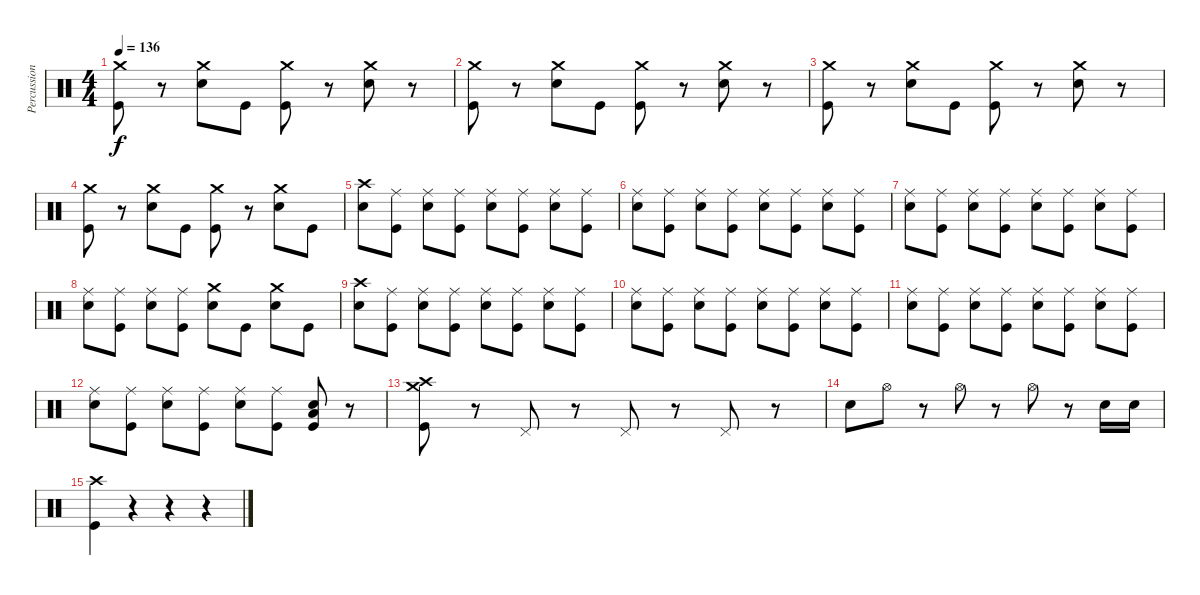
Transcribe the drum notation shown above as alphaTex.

\track ("Percussion" "Percussion") {instrument percussion}
\staff {score}
\articulation defaults
\ts (4 4)
\tempo 136
\clef neutral
\ks c
("Crash medium (hit)" "Kick (hit)").8{dy f} r.8 ("Crash medium (hit)" "Electric Snare (hit)").8 "Kick (hit)".8 ("Crash medium (hit)" "Kick (hit)").8 r.8 ("Crash medium (hit)" "Electric Snare (hit)").8 r.8 |
("Crash medium (hit)" "Kick (hit)").8 r.8 ("Crash medium (hit)" "Electric Snare (hit)").8 "Kick (hit)".8 ("Crash medium (hit)" "Kick (hit)").8 r.8 ("Crash medium (hit)" "Electric Snare (hit)").8 r.8 |
("Crash medium (hit)" "Kick (hit)").8 r.8 ("Crash medium (hit)" "Electric Snare (hit)").8 "Kick (hit)".8 ("Crash medium (hit)" "Kick (hit)").8 r.8 ("Crash medium (hit)" "Electric Snare (hit)").8 r.8 |
("Crash medium (hit)" "Kick (hit)").8 r.8 ("Crash medium (hit)" "Electric Snare (hit)").8 "Kick (hit)".8 ("Crash medium (hit)" "Kick (hit)").8 r.8 ("Crash medium (hit)" "Electric Snare (hit)").8 "Kick (hit)".8 |
("Crash high (hit)" "Electric Snare (hit)").8 ("Ride (middle)" "Kick (hit)").8 ("Ride (middle)" "Electric Snare (hit)").8 ("Ride (middle)" "Kick (hit)").8 ("Ride (middle)" "Electric Snare (hit)").8 ("Ride (middle)" "Kick (hit)").8 ("Ride (middle)" "Electric Snare (hit)").8 ("Ride (middle)" "Kick (hit)").8 |
("Ride (middle)" "Electric Snare (hit)").8 ("Ride (middle)" "Kick (hit)").8 ("Ride (middle)" "Electric Snare (hit)").8 ("Ride (middle)" "Kick (hit)").8 ("Ride (middle)" "Electric Snare (hit)").8 ("Ride (middle)" "Kick (hit)").8 ("Ride (middle)" "Electric Snare (hit)").8 ("Ride (middle)" "Kick (hit)").8 |
("Ride (middle)" "Electric Snare (hit)").8 ("Ride (middle)" "Kick (hit)").8 ("Ride (middle)" "Electric Snare (hit)").8 ("Ride (middle)" "Kick (hit)").8 ("Ride (middle)" "Electric Snare (hit)").8 ("Ride (middle)" "Kick (hit)").8 ("Ride (middle)" "Electric Snare (hit)").8 ("Ride (middle)" "Kick (hit)").8 |
("Ride (middle)" "Electric Snare (hit)").8 ("Ride (middle)" "Kick (hit)").8 ("Ride (middle)" "Electric Snare (hit)").8 ("Ride (middle)" "Kick (hit)").8 ("Crash medium (hit)" "Electric Snare (hit)").8 "Kick (hit)".8 ("Crash medium (hit)" "Electric Snare (hit)").8 "Kick (hit)".8 |
("Crash high (hit)" "Electric Snare (hit)").8 ("Ride (middle)" "Kick (hit)").8 ("Ride (middle)" "Electric Snare (hit)").8 ("Ride (middle)" "Kick (hit)").8 ("Ride (middle)" "Electric Snare (hit)").8 ("Ride (middle)" "Kick (hit)").8 ("Ride (middle)" "Electric Snare (hit)").8 ("Ride (middle)" "Kick (hit)").8 |
("Ride (middle)" "Electric Snare (hit)").8 ("Ride (middle)" "Kick (hit)").8 ("Ride (middle)" "Electric Snare (hit)").8 ("Ride (middle)" "Kick (hit)").8 ("Ride (middle)" "Electric Snare (hit)").8 ("Ride (middle)" "Kick (hit)").8 ("Ride (middle)" "Electric Snare (hit)").8 ("Ride (middle)" "Kick (hit)").8 |
("Ride (middle)" "Electric Snare (hit)").8 ("Ride (middle)" "Kick (hit)").8 ("Ride (middle)" "Electric Snare (hit)").8 ("Ride (middle)" "Kick (hit)").8 ("Ride (middle)" "Electric Snare (hit)").8 ("Ride (middle)" "Kick (hit)").8 ("Ride (middle)" "Electric Snare (hit)").8 ("Ride (middle)" "Kick (hit)").8 |
("Ride (middle)" "Electric Snare (hit)").8 ("Ride (middle)" "Kick (hit)").8 ("Ride (middle)" "Electric Snare (hit)").8 ("Ride (middle)" "Kick (hit)").8 ("Ride (middle)" "Electric Snare (hit)").8 ("Ride (middle)" "Kick (hit)").8 ("Low Floor Tom (hit)" "Electric Snare (hit)" "Kick (hit)").8 r.8 |
("Crash medium (hit)" "Crash high (hit)" "Kick (hit)").8 r.8 "Pedal Hi-Hat (hit)".8 r.8 "Pedal Hi-Hat (hit)".8 r.8 "Pedal Hi-Hat (hit)".8 r.8 |
"Electric Snare (hit)".8 "Hi-Hat (open)".8 r.8 "Hi-Hat (open)".8 r.8 "Hi-Hat (open)".8 r.8 "Electric Snare (hit)".16 "Electric Snare (hit)".16 |
("Crash high (hit)" "Kick (hit)").4 r.4 r.4 r.4
